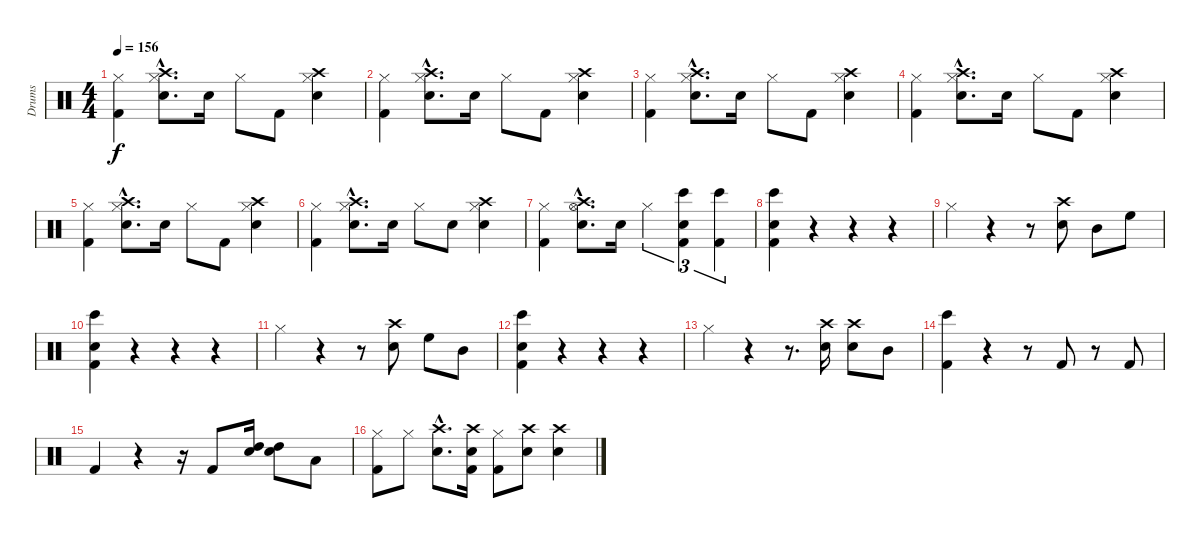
\track ("Drums" "Drums") {instrument percussion}
\staff {score}
\articulation defaults
\ts (4 4)
\tempo 156
\clef neutral
\ks c
("Hi-Hat (closed)" "Kick (hit) 2").4{dy f} ("Crash high (hit)"{hac} "Hi-Hat (closed)"{hac} "Snare (hit) 2"{hac}).8{d} "Snare (hit) 2".16 "Hi-Hat (closed)".8 "Kick (hit) 2".8 ("Crash high (hit)" "Hi-Hat (closed)" "Snare (hit) 2").4 |
("Hi-Hat (closed)" "Kick (hit) 2").4 ("Crash high (hit)"{hac} "Hi-Hat (closed)"{hac} "Snare (hit) 2"{hac}).8{d} "Snare (hit) 2".16 "Hi-Hat (closed)".8 "Kick (hit) 2".8 ("Crash high (hit)" "Hi-Hat (closed)" "Snare (hit) 2").4 |
("Hi-Hat (closed)" "Kick (hit) 2").4 ("Crash high (hit)"{hac} "Hi-Hat (closed)"{hac} "Snare (hit) 2"{hac}).8{d} "Snare (hit) 2".16 "Hi-Hat (closed)".8 "Kick (hit) 2".8 ("Crash high (hit)" "Hi-Hat (closed)" "Snare (hit) 2").4 |
("Hi-Hat (closed)" "Kick (hit) 2").4 ("Crash high (hit)"{hac} "Hi-Hat (closed)"{hac} "Snare (hit) 2"{hac}).8{d} "Snare (hit) 2".16 "Hi-Hat (closed)".8 "Kick (hit) 2".8 ("Crash high (hit)" "Hi-Hat (closed)" "Snare (hit) 2").4 |
("Hi-Hat (closed)" "Kick (hit) 2").4 ("Crash high (hit)"{hac} "Hi-Hat (closed)"{hac} "Snare (hit) 2"{hac}).8{d} "Snare (hit) 2".16 "Hi-Hat (closed)".8 "Kick (hit) 2".8 ("Crash high (hit)" "Hi-Hat (closed)" "Snare (hit) 2").4 |
("Hi-Hat (closed)" "Kick (hit) 2").4 ("Crash high (hit)"{hac} "Hi-Hat (closed)"{hac} "Snare (hit) 2"{hac}).8{d} "Snare (hit) 2".16 "Hi-Hat (closed)".8 "Snare (hit) 2".8 ("Crash high (hit)" "Hi-Hat (closed)" "Snare (hit) 2").4 |
("Hi-Hat (closed)" "Kick (hit) 2").4 ("Crash high (hit)"{hac} "Hi-Hat (open)"{hac} "Snare (hit) 2"{hac}).8{d} "Snare (hit) 2".16 "Hi-Hat (closed)".4{tu (3 2)} ("Bongo High (hit)" "Snare (hit) 2" "Kick (hit) 2").4{tu (3 2)} ("Bongo High (hit)" "Kick (hit) 2").4{tu (3 2)} |
("Bongo High (hit)" "Snare (hit) 2" "Kick (hit) 2").4 r.4 r.4 r.4 |
"Hi-Hat (closed)".4 r.4 r.8 ("Crash high (hit)" "Snare (hit) 2").8 "Mid Tom (hit)".8 "High Floor Tom (hit)".8 |
("Bongo High (hit)" "Snare (hit) 2" "Kick (hit) 2").4 r.4 r.4 r.4 |
"Hi-Hat (closed)".4 r.4 r.8 ("Crash high (hit)" "Snare (hit) 2").8 "High Floor Tom (hit)".8 "Mid Tom (hit)".8 |
("Bongo High (hit)" "Snare (hit) 2" "Kick (hit) 2").4 r.4 r.4 r.4 |
"Hi-Hat (closed)".4 r.4 r.8{d} ("Crash high (hit)" "Snare (hit) 2").16 ("Crash high (hit)" "Snare (hit) 2").8 "Mid Tom (hit)".8 |
("Bongo High (hit)" "Kick (hit) 2").4 r.4 r.8 "Kick (hit) 2".8 r.8 "Kick (hit) 2".8 |
"Kick (hit) 2".4 r.4 r.16 "Kick (hit) 2".8 ("High Tom (hit)" "Snare (hit) 2").16 ("High Tom (hit)" "Snare (hit) 2").8 "Low Tom (hit)".8 |
("Hi-Hat (closed)" "Kick (hit) 2").8 "Hi-Hat (closed)".8 ("Crash high (hit)"{hac} "Snare (hit) 2"{hac}).8{d} ("Crash high (hit)" "Snare (hit) 2" "Kick (hit) 2").16 ("Hi-Hat (closed)" "Kick (hit) 2").8 ("Crash high (hit)" "Snare (hit) 2").8 ("Crash high (hit)" "Snare (hit) 2").4
